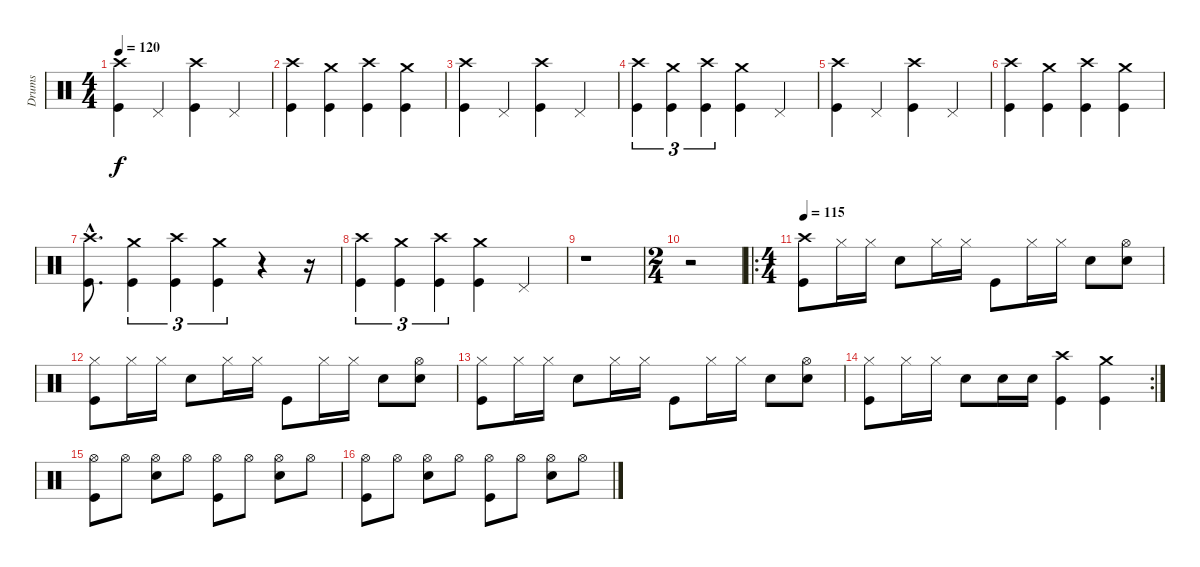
\track ("Drums" "Drums") {instrument percussion}
\staff {score}
\articulation defaults
\ts (4 4)
\tempo 120
\tempo 100
\tempo 120
\clef neutral
\ks c
("Crash high (hit)" "Kick (hit)").4{dy f} "Pedal Hi-Hat (hit)".4 ("Crash high (hit)" "Kick (hit)").4 "Pedal Hi-Hat (hit)".4 |
("Crash high (hit)" "Kick (hit)").4 ("Crash medium (hit)" "Kick (hit)").4 ("Crash high (hit)" "Kick (hit)").4 ("Crash medium (hit)" "Kick (hit)").4 |
("Crash high (hit)" "Kick (hit)").4 "Pedal Hi-Hat (hit)".4 ("Crash high (hit)" "Kick (hit)").4 "Pedal Hi-Hat (hit)".4 |
("Crash high (hit)" "Kick (hit)").4{tu (3 2)} ("Crash medium (hit)" "Kick (hit)").4{tu (3 2)} ("Crash high (hit)" "Kick (hit)").4{tu (3 2)} ("Crash medium (hit)" "Kick (hit)").4 "Pedal Hi-Hat (hit)".4 |
("Crash high (hit)" "Kick (hit)").4 "Pedal Hi-Hat (hit)".4 ("Crash high (hit)" "Kick (hit)").4 "Pedal Hi-Hat (hit)".4 |
("Crash high (hit)" "Kick (hit)").4 ("Crash medium (hit)" "Kick (hit)").4 ("Crash high (hit)" "Kick (hit)").4 ("Crash medium (hit)" "Kick (hit)").4 |
("Crash high (hit)"{hac} "Kick (hit)"{hac}).8{d} ("Crash medium (hit)" "Kick (hit)").4{tu (3 2)} ("Crash high (hit)" "Kick (hit)").4{tu (3 2)} ("Crash medium (hit)" "Kick (hit)").4{tu (3 2)} r.4 r.16 |
("Crash high (hit)" "Kick (hit)").4{tu (3 2)} ("Crash medium (hit)" "Kick (hit)").4{tu (3 2)} ("Crash high (hit)" "Kick (hit)").4{tu (3 2)} ("Crash medium (hit)" "Kick (hit)").4 "Pedal Hi-Hat (hit)".4 |
r.1 |
\ts (2 4)
r.2 |
\ro
\ts (4 4)
\tempo 115
("Crash high (hit)" "Kick (hit)").8 "Hi-Hat (closed)".16 "Hi-Hat (closed)".16 "Snare (hit) 2".8 "Hi-Hat (closed)".16 "Hi-Hat (closed)".16 "Kick (hit)".8 "Hi-Hat (closed)".16 "Hi-Hat (closed)".16 "Snare (hit) 2".8 ("Hi-Hat (open)" "Snare (hit) 2").8 |
("Hi-Hat (closed)" "Kick (hit)").8 "Hi-Hat (closed)".16 "Hi-Hat (closed)".16 "Snare (hit) 2".8 "Hi-Hat (closed)".16 "Hi-Hat (closed)".16 "Kick (hit)".8 "Hi-Hat (closed)".16 "Hi-Hat (closed)".16 "Snare (hit) 2".8 ("Hi-Hat (open)" "Snare (hit) 2").8 |
("Hi-Hat (closed)" "Kick (hit)").8 "Hi-Hat (closed)".16 "Hi-Hat (closed)".16 "Snare (hit) 2".8 "Hi-Hat (closed)".16 "Hi-Hat (closed)".16 "Kick (hit)".8 "Hi-Hat (closed)".16 "Hi-Hat (closed)".16 "Snare (hit) 2".8 ("Hi-Hat (open)" "Snare (hit) 2").8 |
\rc 2
("Hi-Hat (closed)" "Kick (hit)").8 "Hi-Hat (closed)".16 "Hi-Hat (closed)".16 "Snare (hit) 2".8 "Snare (hit) 2".16 "Snare (hit) 2".16 ("Crash high (hit)" "Kick (hit)").4 ("Crash medium (hit)" "Kick (hit)").4 |
("Hi-Hat (open)" "Kick (hit)").8 "Hi-Hat (open)".8 ("Hi-Hat (open)" "Snare (hit) 2").8 "Hi-Hat (open)".8 ("Hi-Hat (open)" "Kick (hit)").8 "Hi-Hat (open)".8 ("Hi-Hat (open)" "Snare (hit) 2").8 "Hi-Hat (open)".8 |
("Hi-Hat (open)" "Kick (hit)").8 "Hi-Hat (open)".8 ("Hi-Hat (open)" "Snare (hit) 2").8 "Hi-Hat (open)".8 ("Hi-Hat (open)" "Kick (hit)").8 "Hi-Hat (open)".8 ("Hi-Hat (open)" "Snare (hit) 2").8 "Hi-Hat (open)".8
